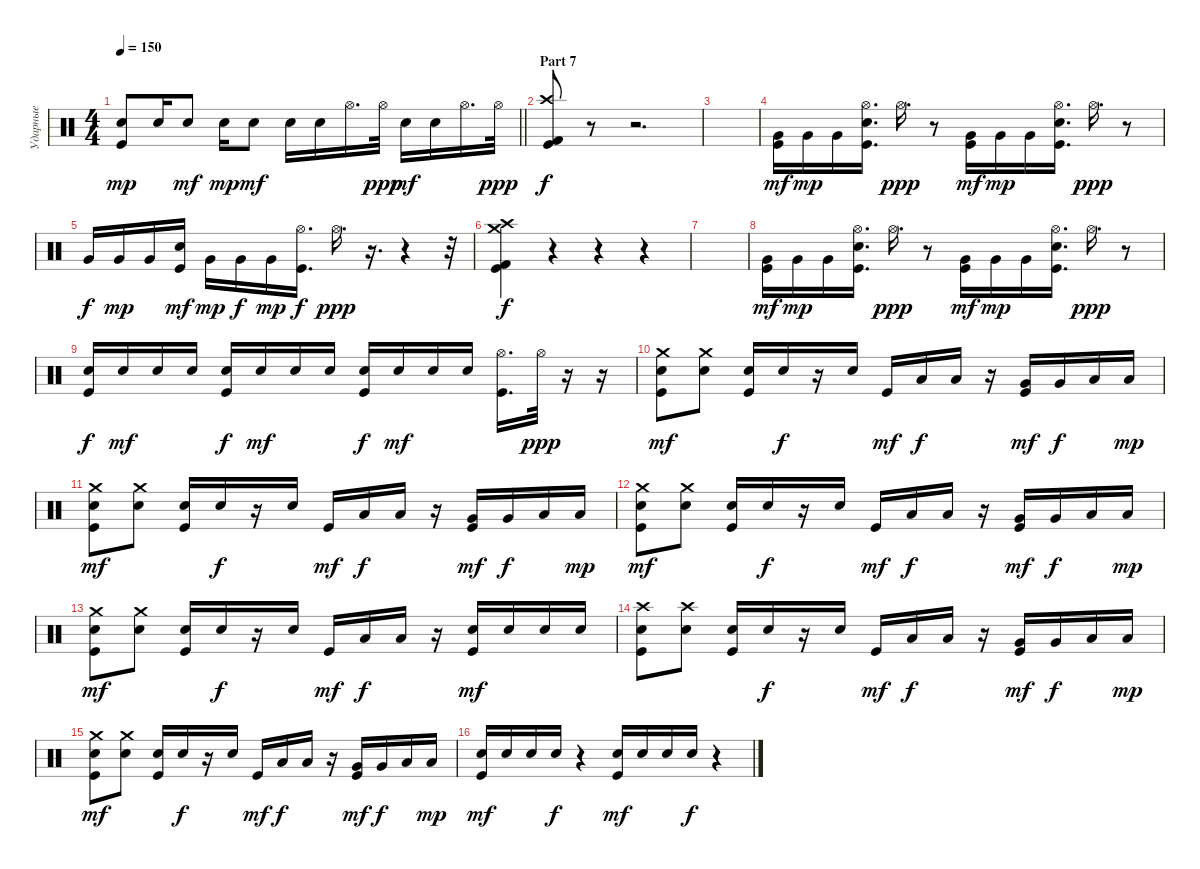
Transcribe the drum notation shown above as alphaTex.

\track ("Ударные" "Ударные") {instrument percussion}
\staff {score}
\articulation defaults
\ts (4 4)
\tempo 150
\clef neutral
\barLineRight lightlight
\ks c
("Electric Snare (hit)" "Kick (hit)").8{dy mp} "Electric Snare (hit)".16 "Electric Snare (hit)".8{dy mf} "Electric Snare (hit)".16{dy mp} "Electric Snare (hit)".8{dy mf} "Electric Snare (hit)".16 "Electric Snare (hit)".16 "Hi-Hat (open)".16{d} "Hi-Hat (open)".32{dy ppp} "Electric Snare (hit)".16{dy mf} "Electric Snare (hit)".16 "Hi-Hat (open)".16{d} "Hi-Hat (open)".32{dy ppp} |
\section ("" "Part 7")
("Crash high (hit)" "Kick (hit) 2" "Kick (hit)").8{dy f} r.8 r.2{d} |
|
("Very Low Tom (hit)" "Kick (hit)").16{dy mf} "Very Low Tom (hit)".16{dy mp} "Very Low Tom (hit)".16 ("Electric Snare (hit)" "Hi-Hat (open)" "Kick (hit)").16{d} "Hi-Hat (open)".16{d dy ppp} r.8 ("Very Low Tom (hit)" "Kick (hit)").16{dy mf} "Very Low Tom (hit)".16{dy mp} "Very Low Tom (hit)".16 ("Electric Snare (hit)" "Hi-Hat (open)" "Kick (hit)").16{d} "Hi-Hat (open)".16{d dy ppp} r.8 |
"Very Low Tom (hit)".16{dy f} "Very Low Tom (hit)".16{dy mp} "Very Low Tom (hit)".16 ("Electric Snare (hit)" "Kick (hit)").16{dy mf} "Very Low Tom (hit)".16{dy mp} "Very Low Tom (hit)".16{dy f} "Very Low Tom (hit)".16{dy mp} ("Hi-Hat (open)" "Kick (hit)").16{d dy f} "Hi-Hat (open)".16{d dy ppp} r.16{d} r.4 r.32 |
("Crash medium (hit)" "Crash high (hit)" "Kick (hit) 2" "Kick (hit)").4{dy f} r.4 r.4 r.4 |
|
("Very Low Tom (hit)" "Kick (hit)").16{dy mf} "Very Low Tom (hit)".16{dy mp} "Very Low Tom (hit)".16 ("Electric Snare (hit)" "Hi-Hat (open)" "Kick (hit)").16{d} "Hi-Hat (open)".16{d dy ppp} r.8 ("Very Low Tom (hit)" "Kick (hit)").16{dy mf} "Very Low Tom (hit)".16{dy mp} "Very Low Tom (hit)".16 ("Electric Snare (hit)" "Hi-Hat (open)" "Kick (hit)").16{d} "Hi-Hat (open)".16{d dy ppp} r.8 |
("Electric Snare (hit)" "Kick (hit)").16{dy f} "Electric Snare (hit)".16{dy mf} "Electric Snare (hit)".16 "Electric Snare (hit)".16 ("Electric Snare (hit)" "Kick (hit)").16{dy f} "Electric Snare (hit)".16{dy mf} "Electric Snare (hit)".16 "Electric Snare (hit)".16 ("Electric Snare (hit)" "Kick (hit)").16{dy f} "Electric Snare (hit)".16{dy mf} "Electric Snare (hit)".16 "Electric Snare (hit)".16 ("Hi-Hat (open)" "Kick (hit)").16{d} "Hi-Hat (open)".32{dy ppp} r.16 r.16 |
("Crash medium (hit)" "Electric Snare (hit)" "Kick (hit)").8{dy mf} ("Crash medium (hit)" "Electric Snare (hit)").8 ("Electric Snare (hit)" "Kick (hit)").16 "Electric Snare (hit)".16{dy f} r.16 "Electric Snare (hit)".16 "Kick (hit)".16{dy mf} "Low Tom (hit)".16{dy f} "Low Tom (hit)".16 r.16 ("Very Low Tom (hit)" "Kick (hit)").16{dy mf} "Very Low Tom (hit)".16{dy f} "Low Floor Tom (hit)".16 "Low Floor Tom (hit)".16{dy mp} |
("Crash medium (hit)" "Electric Snare (hit)" "Kick (hit)").8{dy mf} ("Crash medium (hit)" "Electric Snare (hit)").8 ("Electric Snare (hit)" "Kick (hit)").16 "Electric Snare (hit)".16{dy f} r.16 "Electric Snare (hit)".16 "Kick (hit)".16{dy mf} "Low Tom (hit)".16{dy f} "Low Tom (hit)".16 r.16 ("Very Low Tom (hit)" "Kick (hit)").16{dy mf} "Very Low Tom (hit)".16{dy f} "Low Floor Tom (hit)".16 "Low Floor Tom (hit)".16{dy mp} |
("Crash medium (hit)" "Electric Snare (hit)" "Kick (hit)").8{dy mf} ("Crash medium (hit)" "Electric Snare (hit)").8 ("Electric Snare (hit)" "Kick (hit)").16 "Electric Snare (hit)".16{dy f} r.16 "Electric Snare (hit)".16 "Kick (hit)".16{dy mf} "Low Tom (hit)".16{dy f} "Low Tom (hit)".16 r.16 ("Very Low Tom (hit)" "Kick (hit)").16{dy mf} "Very Low Tom (hit)".16{dy f} "Low Floor Tom (hit)".16 "Low Floor Tom (hit)".16{dy mp} |
("Crash medium (hit)" "Electric Snare (hit)" "Kick (hit)").8{dy mf} ("Crash medium (hit)" "Electric Snare (hit)").8 ("Electric Snare (hit)" "Kick (hit)").16 "Electric Snare (hit)".16{dy f} r.16 "Electric Snare (hit)".16 "Kick (hit)".16{dy mf} "Low Tom (hit)".16{dy f} "Low Tom (hit)".16 r.16 ("Electric Snare (hit)" "Kick (hit)").16{dy mf} "Electric Snare (hit)".16 "Electric Snare (hit)".16 "Electric Snare (hit)".16 |
("Crash high (hit)" "Electric Snare (hit)" "Kick (hit)").8 ("Crash high (hit)" "Electric Snare (hit)").8 ("Electric Snare (hit)" "Kick (hit)").16 "Electric Snare (hit)".16{dy f} r.16 "Electric Snare (hit)".16 "Kick (hit)".16{dy mf} "Low Tom (hit)".16{dy f} "Low Tom (hit)".16 r.16 ("Very Low Tom (hit)" "Kick (hit)").16{dy mf} "Very Low Tom (hit)".16{dy f} "Low Floor Tom (hit)".16 "Low Floor Tom (hit)".16{dy mp} |
("Crash medium (hit)" "Electric Snare (hit)" "Kick (hit)").8{dy mf} ("Crash medium (hit)" "Electric Snare (hit)").8 ("Electric Snare (hit)" "Kick (hit)").16 "Electric Snare (hit)".16{dy f} r.16 "Electric Snare (hit)".16 "Kick (hit)".16{dy mf} "Low Tom (hit)".16{dy f} "Low Tom (hit)".16 r.16 ("Very Low Tom (hit)" "Kick (hit)").16{dy mf} "Very Low Tom (hit)".16{dy f} "Low Floor Tom (hit)".16 "Low Floor Tom (hit)".16{dy mp} |
("Electric Snare (hit)" "Kick (hit)").16{dy mf} "Electric Snare (hit)".16 "Electric Snare (hit)".16 "Electric Snare (hit)".16{dy f} r.4 ("Electric Snare (hit)" "Kick (hit)").16{dy mf} "Electric Snare (hit)".16 "Electric Snare (hit)".16 "Electric Snare (hit)".16{dy f} r.4
